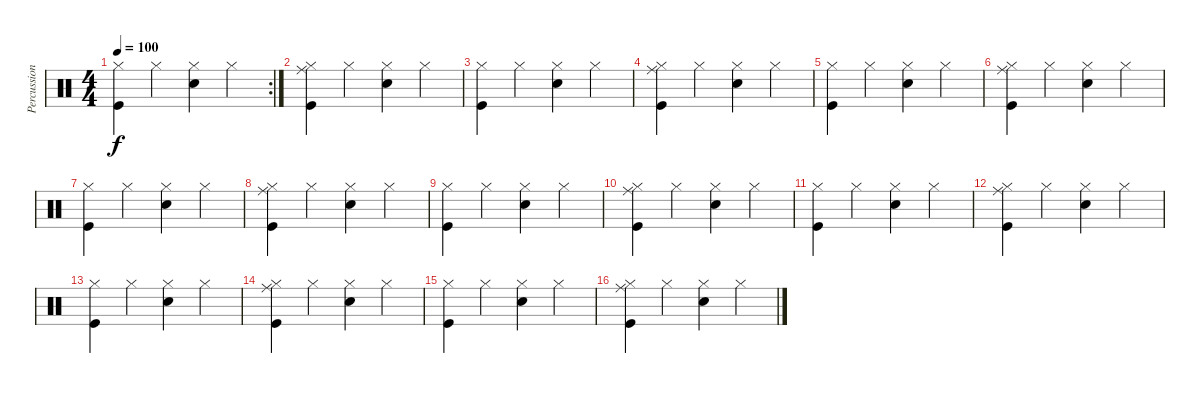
\track ("Percussion" "Percussion") {instrument percussion}
\staff {score}
\articulation defaults
\rc 2
\ts (4 4)
\tempo 100
\clef neutral
\ks c
("Hi-Hat (closed)" "Kick (hit)").4{dy f} "Hi-Hat (closed)".4 ("Hi-Hat (closed)" "Electric Snare (hit)").4 "Hi-Hat (closed)".4 |
("Hi-Hat (closed)" "Kick (hit)" "Ride (middle)").4 "Hi-Hat (closed)".4 ("Hi-Hat (closed)" "Electric Snare (hit)").4 "Hi-Hat (closed)".4 |
("Hi-Hat (closed)" "Kick (hit)").4 "Hi-Hat (closed)".4 ("Hi-Hat (closed)" "Electric Snare (hit)").4 "Hi-Hat (closed)".4 |
("Hi-Hat (closed)" "Kick (hit)" "Ride (middle)").4 "Hi-Hat (closed)".4 ("Hi-Hat (closed)" "Electric Snare (hit)").4 "Hi-Hat (closed)".4 |
("Hi-Hat (closed)" "Kick (hit)").4 "Hi-Hat (closed)".4 ("Hi-Hat (closed)" "Electric Snare (hit)").4 "Hi-Hat (closed)".4 |
("Hi-Hat (closed)" "Kick (hit)" "Ride (middle)").4 "Hi-Hat (closed)".4 ("Hi-Hat (closed)" "Electric Snare (hit)").4 "Hi-Hat (closed)".4 |
("Hi-Hat (closed)" "Kick (hit)").4 "Hi-Hat (closed)".4 ("Hi-Hat (closed)" "Electric Snare (hit)").4 "Hi-Hat (closed)".4 |
("Hi-Hat (closed)" "Kick (hit)" "Ride (middle)").4 "Hi-Hat (closed)".4 ("Hi-Hat (closed)" "Electric Snare (hit)").4 "Hi-Hat (closed)".4 |
("Hi-Hat (closed)" "Kick (hit)").4 "Hi-Hat (closed)".4 ("Hi-Hat (closed)" "Electric Snare (hit)").4 "Hi-Hat (closed)".4 |
("Hi-Hat (closed)" "Kick (hit)" "Ride (middle)").4 "Hi-Hat (closed)".4 ("Hi-Hat (closed)" "Electric Snare (hit)").4 "Hi-Hat (closed)".4 |
("Hi-Hat (closed)" "Kick (hit)").4 "Hi-Hat (closed)".4 ("Hi-Hat (closed)" "Electric Snare (hit)").4 "Hi-Hat (closed)".4 |
("Hi-Hat (closed)" "Kick (hit)" "Ride (middle)").4 "Hi-Hat (closed)".4 ("Hi-Hat (closed)" "Electric Snare (hit)").4 "Hi-Hat (closed)".4 |
("Hi-Hat (closed)" "Kick (hit)").4 "Hi-Hat (closed)".4 ("Hi-Hat (closed)" "Electric Snare (hit)").4 "Hi-Hat (closed)".4 |
("Hi-Hat (closed)" "Kick (hit)" "Ride (middle)").4 "Hi-Hat (closed)".4 ("Hi-Hat (closed)" "Electric Snare (hit)").4 "Hi-Hat (closed)".4 |
("Hi-Hat (closed)" "Kick (hit)").4 "Hi-Hat (closed)".4 ("Hi-Hat (closed)" "Electric Snare (hit)").4 "Hi-Hat (closed)".4 |
("Hi-Hat (closed)" "Kick (hit)" "Ride (middle)").4 "Hi-Hat (closed)".4 ("Hi-Hat (closed)" "Electric Snare (hit)").4 "Hi-Hat (closed)".4
